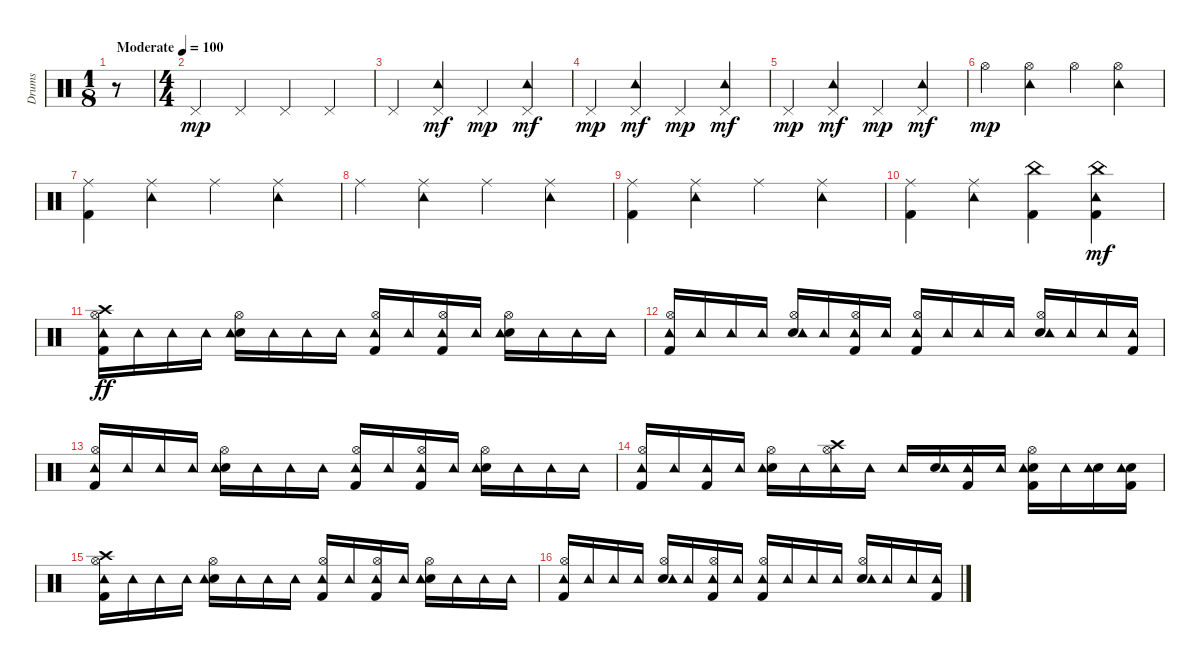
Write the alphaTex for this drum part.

\track ("Drums" "Drums") {instrument percussion}
\staff {score}
\articulation defaults
\ts (1 8)
\tempo (100 "Moderate")
\clef neutral
\ks c
r.8{dy mp} |
\ts (4 4)
"Pedal Hi-Hat (hit)".4 "Pedal Hi-Hat (hit)".4 "Pedal Hi-Hat (hit)".4 "Pedal Hi-Hat (hit)".4 |
"Pedal Hi-Hat (hit)".4 ("Pedal Hi-Hat (hit)" "Tambourine (hit)").4{dy mf} "Pedal Hi-Hat (hit)".4{dy mp} ("Pedal Hi-Hat (hit)" "Tambourine (hit)").4{dy mf} |
"Pedal Hi-Hat (hit)".4{dy mp} ("Pedal Hi-Hat (hit)" "Tambourine (hit)").4{dy mf} "Pedal Hi-Hat (hit)".4{dy mp} ("Pedal Hi-Hat (hit)" "Tambourine (hit)").4{dy mf} |
"Pedal Hi-Hat (hit)".4{dy mp} ("Pedal Hi-Hat (hit)" "Tambourine (hit)").4{dy mf} "Pedal Hi-Hat (hit)".4{dy mp} ("Pedal Hi-Hat (hit)" "Tambourine (hit)").4{dy mf} |
"Hi-Hat (open)".4{dy mp} ("Hi-Hat (open)" "Tambourine (hit)").4 "Hi-Hat (open)".4 ("Hi-Hat (open)" "Tambourine (hit)").4 |
("Kick (hit) 2" "Ride (middle)").4 ("Ride (middle)" "Tambourine (hit)").4 "Ride (middle)".4 ("Ride (middle)" "Tambourine (hit)").4 |
"Ride (middle)".4 ("Ride (middle)" "Tambourine (hit)").4 "Ride (middle)".4 ("Ride (middle)" "Tambourine (hit)").4 |
("Kick (hit) 2" "Ride (middle)").4 ("Ride (middle)" "Tambourine (hit)").4 "Ride (middle)".4 ("Ride (middle)" "Tambourine (hit)").4 |
("Kick (hit) 2" "Ride (middle)").4 ("Ride (middle)" "Tambourine (hit)").4 ("Kick (hit) 2" "China (hit)").4 ("Kick (hit) 2" "China (hit)" "Tambourine (hit)").4{dy mf} |
("Kick (hit) 2" "Hi-Hat (open)" "Crash high (hit)" "Tambourine (hit)").16{dy ff} "Tambourine (hit)".16 "Tambourine (hit)".16 "Tambourine (hit)".16 ("Snare (hit) 2" "Hi-Hat (open)" "Tambourine (hit)").16 "Tambourine (hit)".16 "Tambourine (hit)".16 "Tambourine (hit)".16 ("Kick (hit) 2" "Hi-Hat (open)" "Tambourine (hit)").16 "Tambourine (hit)".16 ("Kick (hit) 2" "Hi-Hat (open)" "Tambourine (hit)").16 "Tambourine (hit)".16 ("Snare (hit) 2" "Hi-Hat (open)" "Tambourine (hit)").16 "Tambourine (hit)".16 "Tambourine (hit)".16 "Tambourine (hit)".16 |
("Kick (hit) 2" "Hi-Hat (open)" "Tambourine (hit)").16 "Tambourine (hit)".16 "Tambourine (hit)".16 "Tambourine (hit)".16 ("Snare (hit) 2" "Hi-Hat (open)" "Tambourine (hit)").16 "Tambourine (hit)".16 ("Kick (hit) 2" "Hi-Hat (open)" "Tambourine (hit)").16 "Tambourine (hit)".16 ("Kick (hit) 2" "Hi-Hat (open)" "Tambourine (hit)").16 "Tambourine (hit)".16 "Tambourine (hit)".16 "Tambourine (hit)".16 ("Snare (hit) 2" "Hi-Hat (open)" "Tambourine (hit)").16 "Tambourine (hit)".16 "Tambourine (hit)".16 ("Kick (hit) 2" "Tambourine (hit)").16 |
("Kick (hit) 2" "Hi-Hat (open)" "Tambourine (hit)").16 "Tambourine (hit)".16 "Tambourine (hit)".16 "Tambourine (hit)".16 ("Snare (hit) 2" "Hi-Hat (open)" "Tambourine (hit)").16 "Tambourine (hit)".16 "Tambourine (hit)".16 "Tambourine (hit)".16 ("Kick (hit) 2" "Hi-Hat (open)" "Tambourine (hit)").16 "Tambourine (hit)".16 ("Kick (hit) 2" "Hi-Hat (open)" "Tambourine (hit)").16 "Tambourine (hit)".16 ("Snare (hit) 2" "Hi-Hat (open)" "Tambourine (hit)").16 "Tambourine (hit)".16 "Tambourine (hit)".16 "Tambourine (hit)".16 |
("Kick (hit) 2" "Hi-Hat (open)" "Tambourine (hit)").16 "Tambourine (hit)".16 ("Kick (hit) 2" "Tambourine (hit)").16 "Tambourine (hit)".16 ("Snare (hit) 2" "Hi-Hat (open)" "Tambourine (hit)").16 "Tambourine (hit)".16 ("Hi-Hat (open)" "Crash high (hit)" "Tambourine (hit)").16 "Tambourine (hit)".16 "Tambourine (hit)".16 ("Snare (hit) 2" "Tambourine (hit)").16 ("Kick (hit) 2" "Tambourine (hit)").16 "Tambourine (hit)".16 ("Kick (hit) 2" "Snare (hit) 2" "Hi-Hat (open)" "Tambourine (hit)").16 "Tambourine (hit)".16 ("Snare (hit) 2" "Tambourine (hit)").16 ("Kick (hit) 2" "Snare (hit) 2" "Tambourine (hit)").16 |
("Kick (hit) 2" "Hi-Hat (open)" "Crash high (hit)" "Tambourine (hit)").16 "Tambourine (hit)".16 "Tambourine (hit)".16 "Tambourine (hit)".16 ("Snare (hit) 2" "Hi-Hat (open)" "Tambourine (hit)").16 "Tambourine (hit)".16 "Tambourine (hit)".16 "Tambourine (hit)".16 ("Kick (hit) 2" "Hi-Hat (open)" "Tambourine (hit)").16 "Tambourine (hit)".16 ("Kick (hit) 2" "Hi-Hat (open)" "Tambourine (hit)").16 "Tambourine (hit)".16 ("Snare (hit) 2" "Hi-Hat (open)" "Tambourine (hit)").16 "Tambourine (hit)".16 "Tambourine (hit)".16 "Tambourine (hit)".16 |
("Kick (hit) 2" "Hi-Hat (open)" "Tambourine (hit)").16 "Tambourine (hit)".16 "Tambourine (hit)".16 "Tambourine (hit)".16 ("Snare (hit) 2" "Hi-Hat (open)" "Tambourine (hit)").16 "Tambourine (hit)".16 ("Kick (hit) 2" "Hi-Hat (open)" "Tambourine (hit)").16 "Tambourine (hit)".16 ("Kick (hit) 2" "Hi-Hat (open)" "Tambourine (hit)").16 "Tambourine (hit)".16 "Tambourine (hit)".16 "Tambourine (hit)".16 ("Snare (hit) 2" "Hi-Hat (open)" "Tambourine (hit)").16 "Tambourine (hit)".16 "Tambourine (hit)".16 ("Kick (hit) 2" "Tambourine (hit)").16
